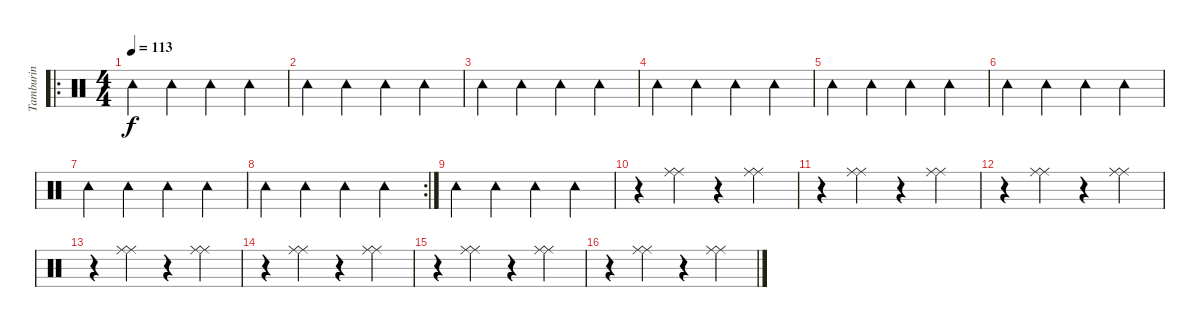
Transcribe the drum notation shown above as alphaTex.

\track ("Tamburin" "Tamburin") {instrument percussion}
\staff {score}
\articulation defaults
\ro
\ts (4 4)
\tempo 113
\clef neutral
\ks c "Tambourine (hit)".4{dy f} "Tambourine (hit)".4 "Tambourine (hit)".4 "Tambourine (hit)".4
|
"Tambourine (hit)".4 "Tambourine (hit)".4 "Tambourine (hit)".4 "Tambourine (hit)".4 |
"Tambourine (hit)".4 "Tambourine (hit)".4 "Tambourine (hit)".4 "Tambourine (hit)".4 |
"Tambourine (hit)".4 "Tambourine (hit)".4 "Tambourine (hit)".4 "Tambourine (hit)".4 |
"Tambourine (hit)".4 "Tambourine (hit)".4 "Tambourine (hit)".4 "Tambourine (hit)".4 |
"Tambourine (hit)".4 "Tambourine (hit)".4 "Tambourine (hit)".4 "Tambourine (hit)".4 |
"Tambourine (hit)".4 "Tambourine (hit)".4 "Tambourine (hit)".4 "Tambourine (hit)".4 |
\rc 2 "Tambourine (hit)".4 "Tambourine (hit)".4 "Tambourine (hit)".4 "Tambourine (hit)".4
|
"Tambourine (hit)".4 "Tambourine (hit)".4 "Tambourine (hit)".4 "Tambourine (hit)".4 |
r.4 ("Ride (middle)" "Ride (middle)").4 r.4 ("Ride (middle)" "Ride (middle)").4 |
r.4 ("Ride (middle)" "Ride (middle)").4 r.4 ("Ride (middle)" "Ride (middle)").4 |
r.4 ("Ride (middle)" "Ride (middle)").4 r.4 ("Ride (middle)" "Ride (middle)").4 |
r.4 ("Ride (middle)" "Ride (middle)").4 r.4 ("Ride (middle)" "Ride (middle)").4 |
r.4 ("Ride (middle)" "Ride (middle)").4 r.4 ("Ride (middle)" "Ride (middle)").4 |
r.4 ("Ride (middle)" "Ride (middle)").4 r.4 ("Ride (middle)" "Ride (middle)").4 |
r.4 ("Ride (middle)" "Ride (middle)").4 r.4 ("Ride (middle)" "Ride (middle)").4
